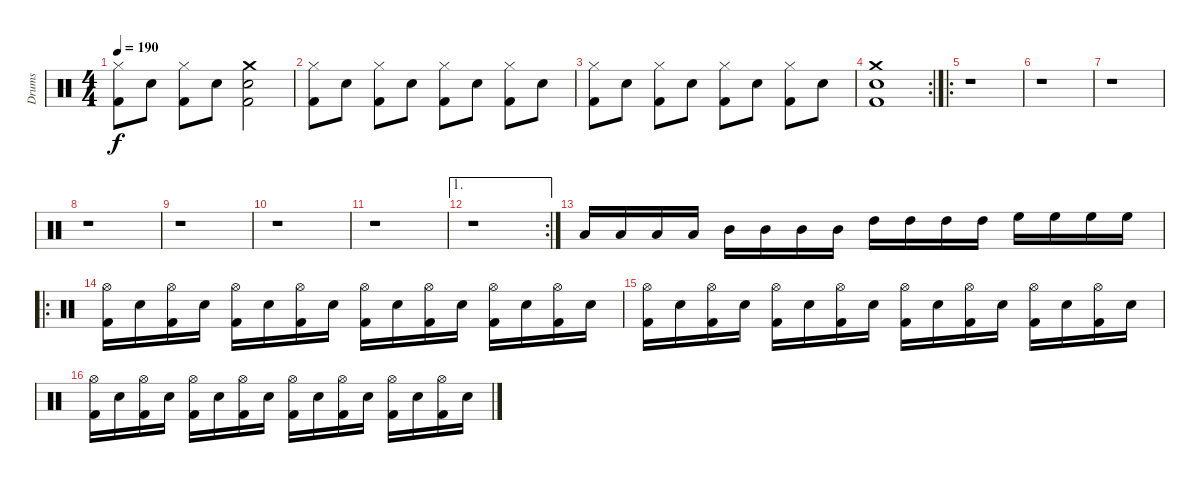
\track ("Drums" "Drums") {instrument percussion}
\staff {score}
\articulation defaults
\ts (4 4)
\tempo 190
\clef neutral
\ks c
("Hi-Hat (closed)" "Kick (hit) 2").8{dy f} "Electric Snare (hit)".8 ("Hi-Hat (closed)" "Kick (hit) 2").8 "Electric Snare (hit)".8 ("Electric Snare (hit)" "Crash medium (hit)" "Kick (hit) 2").2 |
("Hi-Hat (closed)" "Kick (hit) 2").8 "Electric Snare (hit)".8 ("Hi-Hat (closed)" "Kick (hit) 2").8 "Electric Snare (hit)".8 ("Hi-Hat (closed)" "Kick (hit) 2").8 "Electric Snare (hit)".8 ("Hi-Hat (closed)" "Kick (hit) 2").8 "Electric Snare (hit)".8 |
("Hi-Hat (closed)" "Kick (hit) 2").8 "Electric Snare (hit)".8 ("Hi-Hat (closed)" "Kick (hit) 2").8 "Electric Snare (hit)".8 ("Hi-Hat (closed)" "Kick (hit) 2").8 "Electric Snare (hit)".8 ("Hi-Hat (closed)" "Kick (hit) 2").8 "Electric Snare (hit)".8 |
\rc 2
("Electric Snare (hit)" "Crash medium (hit)" "Kick (hit) 2").1 |
\ro
r.1 |
r.1 |
r.1 |
r.1 |
r.1 |
r.1 |
r.1 |
\ae 1
\rc 2
r.1 |
"Low Tom (hit)".16 "Low Tom (hit)".16 "Low Tom (hit)".16 "Low Tom (hit)".16 "Mid Tom (hit)".16 "Mid Tom (hit)".16 "Mid Tom (hit)".16 "Mid Tom (hit)".16 "High Tom (hit)".16 "High Tom (hit)".16 "High Tom (hit)".16 "High Tom (hit)".16 "High Floor Tom (hit)".16 "High Floor Tom (hit)".16 "High Floor Tom (hit)".16 "High Floor Tom (hit)".16 |
\ro
("Hi-Hat (open)" "Kick (hit) 2").16 "Electric Snare (hit)".16 ("Hi-Hat (open)" "Kick (hit) 2").16 "Electric Snare (hit)".16 ("Hi-Hat (open)" "Kick (hit) 2").16 "Electric Snare (hit)".16 ("Hi-Hat (open)" "Kick (hit) 2").16 "Electric Snare (hit)".16 ("Hi-Hat (open)" "Kick (hit) 2").16 "Electric Snare (hit)".16 ("Hi-Hat (open)" "Kick (hit) 2").16 "Electric Snare (hit)".16 ("Hi-Hat (open)" "Kick (hit) 2").16 "Electric Snare (hit)".16 ("Hi-Hat (open)" "Kick (hit) 2").16 "Electric Snare (hit)".16 |
("Hi-Hat (open)" "Kick (hit) 2").16 "Electric Snare (hit)".16 ("Hi-Hat (open)" "Kick (hit) 2").16 "Electric Snare (hit)".16 ("Hi-Hat (open)" "Kick (hit) 2").16 "Electric Snare (hit)".16 ("Hi-Hat (open)" "Kick (hit) 2").16 "Electric Snare (hit)".16 ("Hi-Hat (open)" "Kick (hit) 2").16 "Electric Snare (hit)".16 ("Hi-Hat (open)" "Kick (hit) 2").16 "Electric Snare (hit)".16 ("Hi-Hat (open)" "Kick (hit) 2").16 "Electric Snare (hit)".16 ("Hi-Hat (open)" "Kick (hit) 2").16 "Electric Snare (hit)".16 |
("Hi-Hat (open)" "Kick (hit) 2").16 "Electric Snare (hit)".16 ("Hi-Hat (open)" "Kick (hit) 2").16 "Electric Snare (hit)".16 ("Hi-Hat (open)" "Kick (hit) 2").16 "Electric Snare (hit)".16 ("Hi-Hat (open)" "Kick (hit) 2").16 "Electric Snare (hit)".16 ("Hi-Hat (open)" "Kick (hit) 2").16 "Electric Snare (hit)".16 ("Hi-Hat (open)" "Kick (hit) 2").16 "Electric Snare (hit)".16 ("Hi-Hat (open)" "Kick (hit) 2").16 "Electric Snare (hit)".16 ("Hi-Hat (open)" "Kick (hit) 2").16 "Electric Snare (hit)".16
